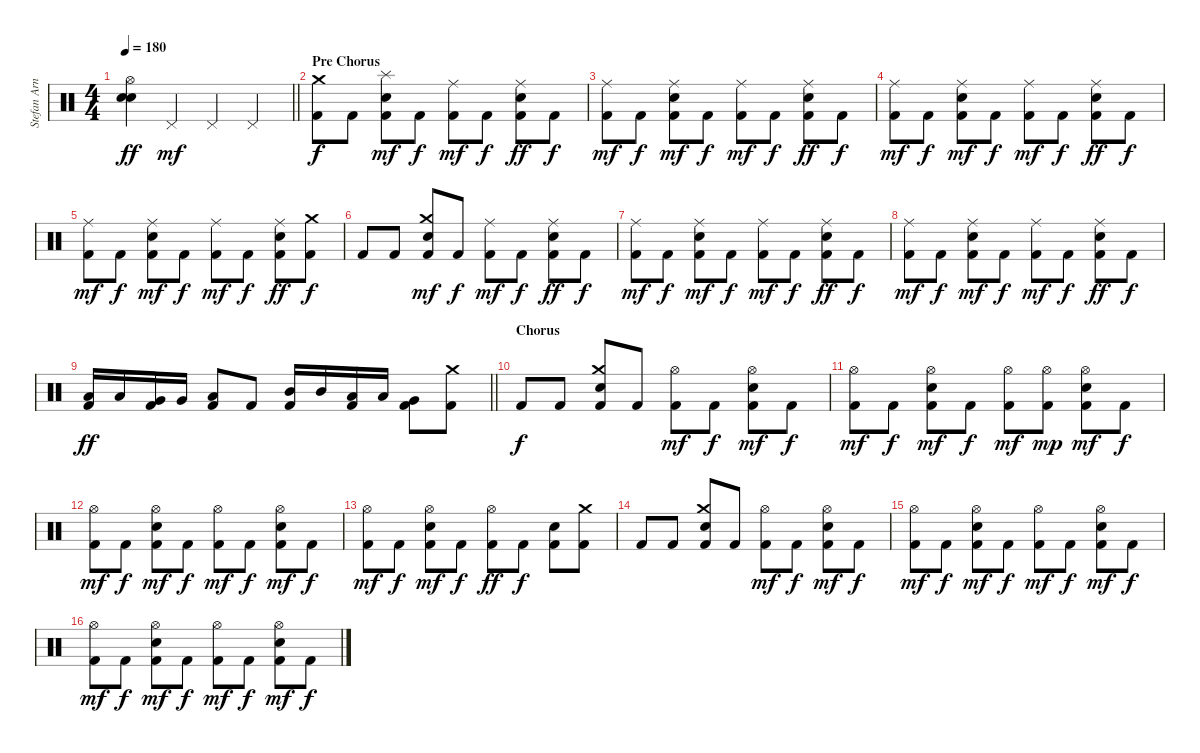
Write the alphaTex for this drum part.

\track ("Stefan Arnold" "Stefan Arn") {instrument percussion}
\staff {score}
\articulation defaults
\ts (4 4)
\tempo 180
\clef neutral
\barLineRight lightlight
\ks c
("Hi-Hat (open)" "Electric Snare (hit)" "Electric Snare (hit)").4{dy ff} "Pedal Hi-Hat (hit)".4{dy mf} "Pedal Hi-Hat (hit)".4 "Pedal Hi-Hat (hit)".4 |
\section ("" "Pre Chorus")
("Crash medium (hit)" "Kick (hit) 2").8{dy f} "Kick (hit) 2".8 ("Splash (hit)" "Electric Snare (hit)" "Kick (hit) 2").8{dy mf} "Kick (hit) 2".8{dy f} ("Ride (middle)" "Kick (hit) 2").8{dy mf} "Kick (hit) 2".8{dy f} ("Ride (middle)" "Electric Snare (hit)" "Kick (hit) 2").8{dy ff} "Kick (hit) 2".8{dy f} |
("Ride (middle)" "Kick (hit) 2").8{dy mf} "Kick (hit) 2".8{dy f} ("Ride (middle)" "Electric Snare (hit)" "Kick (hit) 2").8{dy mf} "Kick (hit) 2".8{dy f} ("Ride (middle)" "Kick (hit) 2").8{dy mf} "Kick (hit) 2".8{dy f} ("Ride (middle)" "Electric Snare (hit)" "Kick (hit) 2").8{dy ff} "Kick (hit) 2".8{dy f} |
("Ride (middle)" "Kick (hit) 2").8{dy mf} "Kick (hit) 2".8{dy f} ("Ride (middle)" "Electric Snare (hit)" "Kick (hit) 2").8{dy mf} "Kick (hit) 2".8{dy f} ("Ride (middle)" "Kick (hit) 2").8{dy mf} "Kick (hit) 2".8{dy f} ("Ride (middle)" "Electric Snare (hit)" "Kick (hit) 2").8{dy ff} "Kick (hit) 2".8{dy f} |
("Ride (middle)" "Kick (hit) 2").8{dy mf} "Kick (hit) 2".8{dy f} ("Ride (middle)" "Electric Snare (hit)" "Kick (hit) 2").8{dy mf} "Kick (hit) 2".8{dy f} ("Ride (middle)" "Kick (hit) 2").8{dy mf} "Kick (hit) 2".8{dy f} ("Ride (middle)" "Electric Snare (hit)" "Kick (hit) 2").8{dy ff} ("Crash medium (hit)" "Kick (hit) 2").8{dy f} |
"Kick (hit) 2".8 "Kick (hit) 2".8 ("Crash medium (hit)" "Electric Snare (hit)" "Kick (hit) 2").8{dy mf} "Kick (hit) 2".8{dy f} ("Ride (middle)" "Kick (hit) 2").8{dy mf} "Kick (hit) 2".8{dy f} ("Ride (middle)" "Electric Snare (hit)" "Kick (hit) 2").8{dy ff} "Kick (hit) 2".8{dy f} |
("Ride (middle)" "Kick (hit) 2").8{dy mf} "Kick (hit) 2".8{dy f} ("Ride (middle)" "Electric Snare (hit)" "Kick (hit) 2").8{dy mf} "Kick (hit) 2".8{dy f} ("Ride (middle)" "Kick (hit) 2").8{dy mf} "Kick (hit) 2".8{dy f} ("Ride (middle)" "Electric Snare (hit)" "Kick (hit) 2").8{dy ff} "Kick (hit) 2".8{dy f} |
("Ride (middle)" "Kick (hit) 2").8{dy mf} "Kick (hit) 2".8{dy f} ("Ride (middle)" "Electric Snare (hit)" "Kick (hit) 2").8{dy mf} "Kick (hit) 2".8{dy f} ("Ride (middle)" "Kick (hit) 2").8{dy mf} "Kick (hit) 2".8{dy f} ("Ride (middle)" "Electric Snare (hit)" "Kick (hit) 2").8{dy ff} "Kick (hit) 2".8{dy f} |
\barLineRight lightlight
("Low Tom (hit)" "Kick (hit) 2").16{dy ff} "Low Tom (hit)".16 ("Very Low Tom (hit)" "Kick (hit) 2").16 "Very Low Tom (hit)".16 ("Low Floor Tom (hit)" "Kick (hit) 2").8 "Kick (hit) 2".8 ("Mid Tom (hit)" "Kick (hit) 2").16 "Mid Tom (hit)".16 ("Low Tom (hit)" "Kick (hit) 2").16 "Low Tom (hit)".16 ("Very Low Tom (hit)" "Kick (hit) 2").8 ("Crash medium (hit)" "Kick (hit) 2").8 |
\section ("" "Chorus")
"Kick (hit) 2".8{dy f} "Kick (hit) 2".8 ("Crash medium (hit)" "Electric Snare (hit)" "Kick (hit) 2").8 "Kick (hit) 2".8 ("Hi-Hat (open)" "Kick (hit) 2").8{dy mf} "Kick (hit) 2".8{dy f} ("Hi-Hat (open)" "Electric Snare (hit)" "Kick (hit) 2").8{dy mf} "Kick (hit) 2".8{dy f} |
("Hi-Hat (open)" "Kick (hit) 2").8{dy mf} "Kick (hit) 2".8{dy f} ("Hi-Hat (open)" "Electric Snare (hit)" "Kick (hit) 2").8{dy mf} "Kick (hit) 2".8{dy f} ("Hi-Hat (open)" "Kick (hit) 2").8{dy mf} ("Hi-Hat (open)" "Kick (hit) 2").8{dy mp} ("Hi-Hat (open)" "Electric Snare (hit)" "Kick (hit) 2").8{dy mf} "Kick (hit) 2".8{dy f} |
("Hi-Hat (open)" "Kick (hit) 2").8{dy mf} "Kick (hit) 2".8{dy f} ("Hi-Hat (open)" "Electric Snare (hit)" "Kick (hit) 2").8{dy mf} "Kick (hit) 2".8{dy f} ("Hi-Hat (open)" "Kick (hit) 2").8{dy mf} "Kick (hit) 2".8{dy f} ("Hi-Hat (open)" "Electric Snare (hit)" "Kick (hit) 2").8{dy mf} "Kick (hit) 2".8{dy f} |
("Hi-Hat (open)" "Kick (hit) 2").8{dy mf} "Kick (hit) 2".8{dy f} ("Hi-Hat (open)" "Electric Snare (hit)" "Kick (hit) 2").8{dy mf} "Kick (hit) 2".8{dy f} ("Hi-Hat (open)" "Kick (hit) 2").8{dy ff} "Kick (hit) 2".8{dy f} ("Electric Snare (hit)" "Kick (hit) 2").8 ("Crash medium (hit)" "Kick (hit) 2").8 |
"Kick (hit) 2".8 "Kick (hit) 2".8 ("Crash medium (hit)" "Electric Snare (hit)" "Kick (hit) 2").8 "Kick (hit) 2".8 ("Hi-Hat (open)" "Kick (hit) 2").8{dy mf} "Kick (hit) 2".8{dy f} ("Hi-Hat (open)" "Electric Snare (hit)" "Kick (hit) 2").8{dy mf} "Kick (hit) 2".8{dy f} |
("Hi-Hat (open)" "Kick (hit) 2").8{dy mf} "Kick (hit) 2".8{dy f} ("Hi-Hat (open)" "Electric Snare (hit)" "Kick (hit) 2").8{dy mf} "Kick (hit) 2".8{dy f} ("Hi-Hat (open)" "Kick (hit) 2").8{dy mf} "Kick (hit) 2".8{dy f} ("Hi-Hat (open)" "Electric Snare (hit)" "Kick (hit) 2").8{dy mf} "Kick (hit) 2".8{dy f} |
("Hi-Hat (open)" "Kick (hit) 2").8{dy mf} "Kick (hit) 2".8{dy f} ("Hi-Hat (open)" "Electric Snare (hit)" "Kick (hit) 2").8{dy mf} "Kick (hit) 2".8{dy f} ("Hi-Hat (open)" "Kick (hit) 2").8{dy mf} "Kick (hit) 2".8{dy f} ("Hi-Hat (open)" "Electric Snare (hit)" "Kick (hit) 2").8{dy mf} "Kick (hit) 2".8{dy f}
